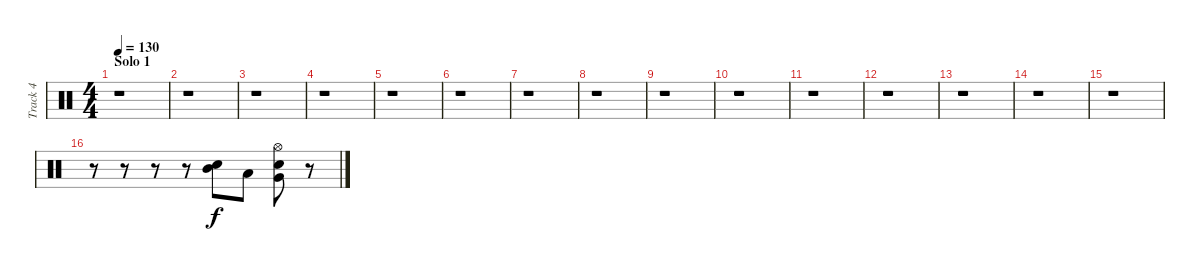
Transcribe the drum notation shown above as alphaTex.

\track ("Track 4" "Track 4") {instrument percussion}
\staff {score}
\articulation defaults
\ts (4 4)
\section ("" "Solo 1")
\tempo 130
\clef neutral
\ks c
r.1{dy f} |
r.1 |
r.1 |
r.1 |
r.1 |
r.1 |
r.1 |
r.1 |
r.1 |
r.1 |
r.1 |
r.1 |
r.1 |
r.1 |
r.1 |
r.8 r.8 r.8 r.8 ("Mid Tom (hit)" "Snare (hit) 2").8 "Low Tom (hit)".8 ("Very Low Tom (hit)" "Snare (hit) 2" "Hi-Hat (open)").8 r.8
